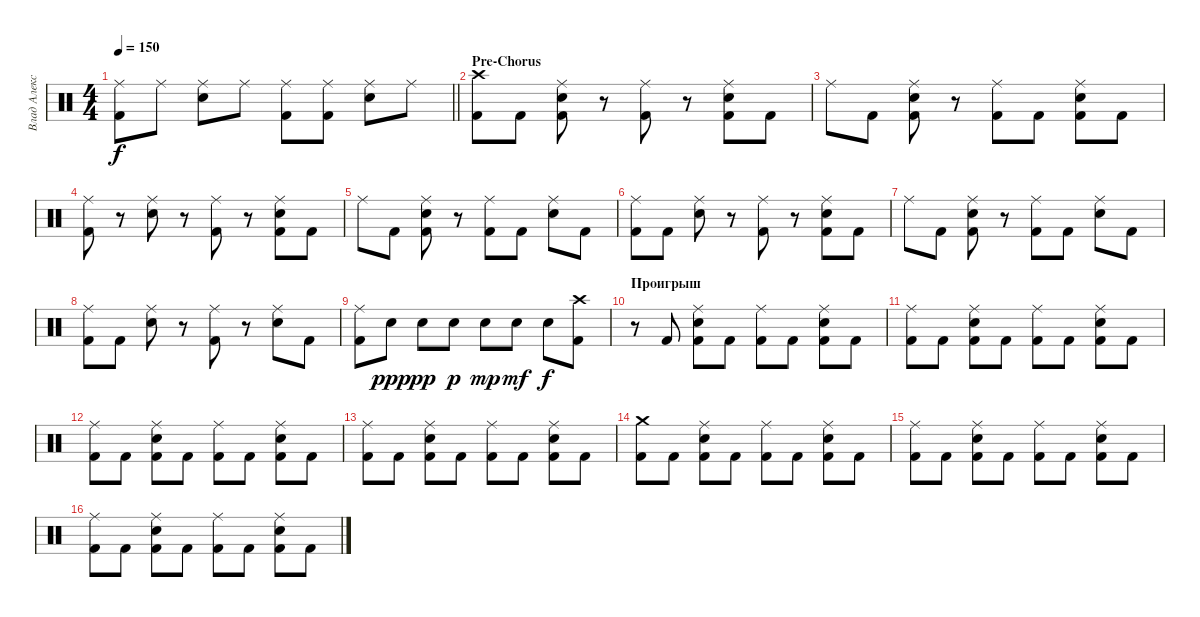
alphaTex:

\track ("Влад Алексеенко" "Влад Алекс") {instrument percussion}
\staff {score}
\articulation defaults
\ts (4 4)
\tempo 150
\clef neutral
\barLineRight lightlight
\ks c
("Ride (middle)" "Kick (hit) 2").8{dy f} "Ride (middle)".8 ("Ride (middle)" "Electric Snare (hit)").8 "Ride (middle)".8 ("Ride (middle)" "Kick (hit) 2").8 ("Ride (middle)" "Kick (hit) 2").8 ("Ride (middle)" "Electric Snare (hit)").8 "Ride (middle)".8 |
\section ("" "Pre-Chorus")
("Crash high (hit)" "Kick (hit) 2").8 "Kick (hit) 2".8 ("Ride (middle)" "Electric Snare (hit)" "Kick (hit) 2").8 r.8 ("Ride (middle)" "Kick (hit) 2").8 r.8 ("Ride (middle)" "Electric Snare (hit)" "Kick (hit) 2").8 "Kick (hit) 2".8 |
"Ride (middle)".8 "Kick (hit) 2".8 ("Ride (middle)" "Electric Snare (hit)" "Kick (hit) 2").8 r.8 ("Ride (middle)" "Kick (hit) 2").8 "Kick (hit) 2".8 ("Ride (middle)" "Electric Snare (hit)" "Kick (hit) 2").8 "Kick (hit) 2".8 |
("Ride (middle)" "Kick (hit) 2").8 r.8 ("Ride (middle)" "Electric Snare (hit)").8 r.8 ("Ride (middle)" "Kick (hit) 2").8 r.8 ("Ride (middle)" "Electric Snare (hit)" "Kick (hit) 2").8 "Kick (hit) 2".8 |
"Ride (middle)".8 "Kick (hit) 2".8 ("Ride (middle)" "Electric Snare (hit)" "Kick (hit) 2").8 r.8 ("Ride (middle)" "Kick (hit) 2").8 "Kick (hit) 2".8 ("Ride (middle)" "Electric Snare (hit)").8 "Kick (hit) 2".8 |
("Ride (middle)" "Kick (hit) 2").8 "Kick (hit) 2".8 ("Ride (middle)" "Electric Snare (hit)").8 r.8 ("Ride (middle)" "Kick (hit) 2").8 r.8 ("Ride (middle)" "Electric Snare (hit)" "Kick (hit) 2").8 "Kick (hit) 2".8 |
"Ride (middle)".8 "Kick (hit) 2".8 ("Ride (middle)" "Electric Snare (hit)" "Kick (hit) 2").8 r.8 ("Ride (middle)" "Kick (hit) 2").8 "Kick (hit) 2".8 ("Ride (middle)" "Electric Snare (hit)").8 "Kick (hit) 2".8 |
("Ride (middle)" "Kick (hit) 2").8 "Kick (hit) 2".8 ("Ride (middle)" "Electric Snare (hit)").8 r.8 ("Ride (middle)" "Kick (hit) 2").8 r.8 ("Ride (middle)" "Electric Snare (hit)").8 "Kick (hit) 2".8 |
("Ride (middle)" "Kick (hit) 2").8 "Electric Snare (hit)".8{dy ppp} "Electric Snare (hit)".8{dy pp} "Electric Snare (hit)".8{dy p} "Electric Snare (hit)".8{dy mp} "Electric Snare (hit)".8{dy mf} "Electric Snare (hit)".8{dy f} ("Crash high (hit)" "Kick (hit) 2").8 |
\section ("" "Проигрыш")
r.8 "Kick (hit) 2".8 ("Ride (middle)" "Electric Snare (hit)" "Kick (hit) 2").8 "Kick (hit) 2".8 ("Ride (middle)" "Kick (hit) 2").8 "Kick (hit) 2".8 ("Ride (middle)" "Electric Snare (hit)" "Kick (hit) 2").8 "Kick (hit) 2".8 |
("Ride (middle)" "Kick (hit) 2").8 "Kick (hit) 2".8 ("Ride (middle)" "Electric Snare (hit)" "Kick (hit) 2").8 "Kick (hit) 2".8 ("Ride (middle)" "Kick (hit) 2").8 "Kick (hit) 2".8 ("Ride (middle)" "Electric Snare (hit)" "Kick (hit) 2").8 "Kick (hit) 2".8 |
("Ride (middle)" "Kick (hit) 2").8 "Kick (hit) 2".8 ("Ride (middle)" "Electric Snare (hit)" "Kick (hit) 2").8 "Kick (hit) 2".8 ("Ride (middle)" "Kick (hit) 2").8 "Kick (hit) 2".8 ("Ride (middle)" "Electric Snare (hit)" "Kick (hit) 2").8 "Kick (hit) 2".8 |
("Ride (middle)" "Kick (hit) 2").8 "Kick (hit) 2".8 ("Ride (middle)" "Electric Snare (hit)" "Kick (hit) 2").8 "Kick (hit) 2".8 ("Ride (middle)" "Kick (hit) 2").8 "Kick (hit) 2".8 ("Ride (middle)" "Electric Snare (hit)" "Kick (hit) 2").8 "Kick (hit) 2".8 |
("Crash medium (hit)" "Kick (hit) 2").8 "Kick (hit) 2".8 ("Ride (middle)" "Electric Snare (hit)" "Kick (hit) 2").8 "Kick (hit) 2".8 ("Ride (middle)" "Kick (hit) 2").8 "Kick (hit) 2".8 ("Ride (middle)" "Electric Snare (hit)" "Kick (hit) 2").8 "Kick (hit) 2".8 |
("Ride (middle)" "Kick (hit) 2").8 "Kick (hit) 2".8 ("Ride (middle)" "Electric Snare (hit)" "Kick (hit) 2").8 "Kick (hit) 2".8 ("Ride (middle)" "Kick (hit) 2").8 "Kick (hit) 2".8 ("Ride (middle)" "Electric Snare (hit)" "Kick (hit) 2").8 "Kick (hit) 2".8 |
("Ride (middle)" "Kick (hit) 2").8 "Kick (hit) 2".8 ("Ride (middle)" "Electric Snare (hit)" "Kick (hit) 2").8 "Kick (hit) 2".8 ("Ride (middle)" "Kick (hit) 2").8 "Kick (hit) 2".8 ("Ride (middle)" "Electric Snare (hit)" "Kick (hit) 2").8 "Kick (hit) 2".8
